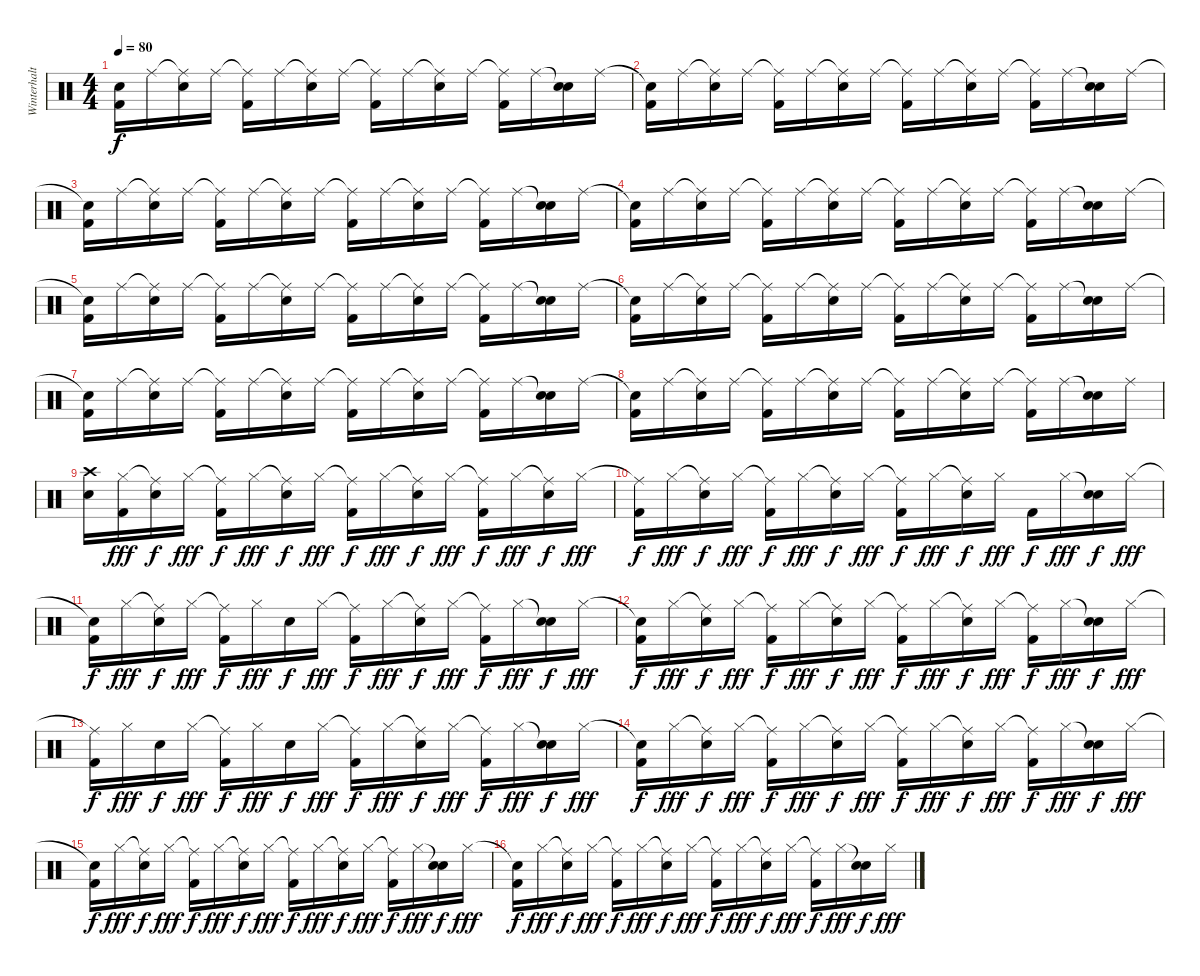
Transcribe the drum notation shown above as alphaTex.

\track ("Winterhalten" "Winterhalt") {instrument percussion}
\staff {score}
\articulation defaults
\ts (4 4)
\tempo 80
\clef neutral
\ks c
("Snare (hit)"{t} "Kick (hit) 2").16{dy f} "Ride (middle)".16 ("Ride (middle)"{t} "Snare (hit) 2").16 "Ride (middle)".16 ("Ride (middle)"{t} "Kick (hit) 2").16 "Ride (middle)".16 ("Ride (middle)"{t} "Snare (hit) 2").16 "Ride (middle)".16 ("Ride (middle)"{t} "Kick (hit) 2").16 "Ride (middle)".16 ("Ride (middle)"{t} "Snare (hit) 2").16 "Ride (middle)".16 ("Ride (middle)"{t} "Kick (hit) 2").16 "Ride (middle)".16 ("Snare (hit)"{t} "Snare (hit) 2").16 "Ride (middle)".16 |
("Snare (hit)"{t} "Kick (hit) 2").16 "Ride (middle)".16 ("Ride (middle)"{t} "Snare (hit) 2").16 "Ride (middle)".16 ("Ride (middle)"{t} "Kick (hit) 2").16 "Ride (middle)".16 ("Ride (middle)"{t} "Snare (hit) 2").16 "Ride (middle)".16 ("Ride (middle)"{t} "Kick (hit) 2").16 "Ride (middle)".16 ("Ride (middle)"{t} "Snare (hit) 2").16 "Ride (middle)".16 ("Ride (middle)"{t} "Kick (hit) 2").16 "Ride (middle)".16 ("Snare (hit)"{t} "Snare (hit) 2").16 "Ride (middle)".16 |
("Snare (hit)"{t} "Kick (hit) 2").16 "Ride (middle)".16 ("Ride (middle)"{t} "Snare (hit) 2").16 "Ride (middle)".16 ("Ride (middle)"{t} "Kick (hit) 2").16 "Ride (middle)".16 ("Ride (middle)"{t} "Snare (hit) 2").16 "Ride (middle)".16 ("Ride (middle)"{t} "Kick (hit) 2").16 "Ride (middle)".16 ("Ride (middle)"{t} "Snare (hit) 2").16 "Ride (middle)".16 ("Ride (middle)"{t} "Kick (hit) 2").16 "Ride (middle)".16 ("Snare (hit)"{t} "Snare (hit) 2").16 "Ride (middle)".16 |
("Snare (hit)"{t} "Kick (hit) 2").16 "Ride (middle)".16 ("Ride (middle)"{t} "Snare (hit) 2").16 "Ride (middle)".16 ("Ride (middle)"{t} "Kick (hit) 2").16 "Ride (middle)".16 ("Ride (middle)"{t} "Snare (hit) 2").16 "Ride (middle)".16 ("Ride (middle)"{t} "Kick (hit) 2").16 "Ride (middle)".16 ("Ride (middle)"{t} "Snare (hit) 2").16 "Ride (middle)".16 ("Ride (middle)"{t} "Kick (hit) 2").16 "Ride (middle)".16 ("Snare (hit)"{t} "Snare (hit) 2").16 "Ride (middle)".16 |
("Snare (hit)"{t} "Kick (hit) 2").16 "Ride (middle)".16 ("Ride (middle)"{t} "Snare (hit) 2").16 "Ride (middle)".16 ("Ride (middle)"{t} "Kick (hit) 2").16 "Ride (middle)".16 ("Ride (middle)"{t} "Snare (hit) 2").16 "Ride (middle)".16 ("Ride (middle)"{t} "Kick (hit) 2").16 "Ride (middle)".16 ("Ride (middle)"{t} "Snare (hit) 2").16 "Ride (middle)".16 ("Ride (middle)"{t} "Kick (hit) 2").16 "Ride (middle)".16 ("Snare (hit)"{t} "Snare (hit) 2").16 "Ride (middle)".16 |
("Snare (hit)"{t} "Kick (hit) 2").16 "Ride (middle)".16 ("Ride (middle)"{t} "Snare (hit) 2").16 "Ride (middle)".16 ("Ride (middle)"{t} "Kick (hit) 2").16 "Ride (middle)".16 ("Ride (middle)"{t} "Snare (hit) 2").16 "Ride (middle)".16 ("Ride (middle)"{t} "Kick (hit) 2").16 "Ride (middle)".16 ("Ride (middle)"{t} "Snare (hit) 2").16 "Ride (middle)".16 ("Ride (middle)"{t} "Kick (hit) 2").16 "Ride (middle)".16 ("Snare (hit)"{t} "Snare (hit) 2").16 "Ride (middle)".16 |
("Snare (hit)"{t} "Kick (hit) 2").16 "Ride (middle)".16 ("Ride (middle)"{t} "Snare (hit) 2").16 "Ride (middle)".16 ("Ride (middle)"{t} "Kick (hit) 2").16 "Ride (middle)".16 ("Ride (middle)"{t} "Snare (hit) 2").16 "Ride (middle)".16 ("Ride (middle)"{t} "Kick (hit) 2").16 "Ride (middle)".16 ("Ride (middle)"{t} "Snare (hit) 2").16 "Ride (middle)".16 ("Ride (middle)"{t} "Kick (hit) 2").16 "Ride (middle)".16 ("Snare (hit)"{t} "Snare (hit) 2").16 "Ride (middle)".16 |
("Snare (hit)"{t} "Kick (hit) 2").16 "Ride (middle)".16 ("Ride (middle)"{t} "Snare (hit) 2").16 "Ride (middle)".16 ("Ride (middle)"{t} "Kick (hit) 2").16 "Ride (middle)".16 ("Ride (middle)"{t} "Snare (hit) 2").16 "Ride (middle)".16 ("Ride (middle)"{t} "Kick (hit) 2").16 "Ride (middle)".16 ("Ride (middle)"{t} "Snare (hit) 2").16 "Ride (middle)".16 ("Ride (middle)"{t} "Kick (hit) 2").16 "Ride (middle)".16 ("Snare (hit)"{t} "Snare (hit) 2").16 "Ride (middle)".16 |
("Crash high (hit)" "Snare (hit) 2").16 ("Hi-Hat (closed)" "Kick (hit) 2").16{dy fff} ("Ride (middle)"{t} "Snare (hit) 2").16{dy f} "Hi-Hat (closed)".16{dy fff} ("Ride (middle)"{t} "Kick (hit) 2").16{dy f} "Hi-Hat (closed)".16{dy fff} ("Ride (middle)"{t} "Snare (hit) 2").16{dy f} "Hi-Hat (closed)".16{dy fff} ("Ride (middle)"{t} "Kick (hit) 2").16{dy f} "Hi-Hat (closed)".16{dy fff} ("Ride (middle)"{t} "Snare (hit) 2").16{dy f} "Hi-Hat (closed)".16{dy fff} ("Ride (middle)"{t} "Kick (hit) 2").16{dy f} "Hi-Hat (closed)".16{dy fff} ("Ride (middle)"{t} "Snare (hit) 2").16{dy f} "Hi-Hat (closed)".16{dy fff} |
("Ride (middle)"{t} "Kick (hit) 2").16{dy f} "Hi-Hat (closed)".16{dy fff} ("Ride (middle)"{t} "Snare (hit) 2").16{dy f} "Hi-Hat (closed)".16{dy fff} ("Ride (middle)"{t} "Kick (hit) 2").16{dy f} "Hi-Hat (closed)".16{dy fff} ("Ride (middle)"{t} "Snare (hit) 2").16{dy f} "Hi-Hat (closed)".16{dy fff} ("Ride (middle)"{t} "Kick (hit) 2").16{dy f} "Hi-Hat (closed)".16{dy fff} ("Ride (middle)"{t} "Snare (hit) 2").16{dy f} "Hi-Hat (closed)".16{dy fff} "Kick (hit) 2".16{dy f} "Hi-Hat (closed)".16{dy fff} ("Snare (hit)"{t} "Snare (hit) 2").16{dy f} "Hi-Hat (closed)".16{dy fff} |
("Snare (hit)"{t} "Kick (hit) 2").16{dy f} "Hi-Hat (closed)".16{dy fff} ("Ride (middle)"{t} "Snare (hit) 2").16{dy f} "Hi-Hat (closed)".16{dy fff} ("Ride (middle)"{t} "Kick (hit) 2").16{dy f} "Hi-Hat (closed)".16{dy fff} "Snare (hit) 2".16{dy f} "Hi-Hat (closed)".16{dy fff} ("Ride (middle)"{t} "Kick (hit) 2").16{dy f} "Hi-Hat (closed)".16{dy fff} ("Ride (middle)"{t} "Snare (hit) 2").16{dy f} "Hi-Hat (closed)".16{dy fff} ("Ride (middle)"{t} "Kick (hit) 2").16{dy f} "Hi-Hat (closed)".16{dy fff} ("Snare (hit)"{t} "Snare (hit) 2").16{dy f} "Hi-Hat (closed)".16{dy fff} |
("Snare (hit)"{t} "Kick (hit) 2").16{dy f} "Hi-Hat (closed)".16{dy fff} ("Ride (middle)"{t} "Snare (hit) 2").16{dy f} "Hi-Hat (closed)".16{dy fff} ("Ride (middle)"{t} "Kick (hit) 2").16{dy f} "Hi-Hat (closed)".16{dy fff} ("Ride (middle)"{t} "Snare (hit) 2").16{dy f} "Hi-Hat (closed)".16{dy fff} ("Ride (middle)"{t} "Kick (hit) 2").16{dy f} "Hi-Hat (closed)".16{dy fff} ("Ride (middle)"{t} "Snare (hit) 2").16{dy f} "Hi-Hat (closed)".16{dy fff} ("Ride (middle)"{t} "Kick (hit) 2").16{dy f} "Hi-Hat (closed)".16{dy fff} ("Snare (hit)"{t} "Snare (hit) 2").16{dy f} "Hi-Hat (closed)".16{dy fff} |
("Ride (middle)"{t} "Kick (hit) 2").16{dy f} "Hi-Hat (closed)".16{dy fff} "Snare (hit) 2".16{dy f} "Hi-Hat (closed)".16{dy fff} ("Ride (middle)"{t} "Kick (hit) 2").16{dy f} "Hi-Hat (closed)".16{dy fff} "Snare (hit) 2".16{dy f} "Hi-Hat (closed)".16{dy fff} ("Ride (middle)"{t} "Kick (hit) 2").16{dy f} "Hi-Hat (closed)".16{dy fff} ("Ride (middle)"{t} "Snare (hit) 2").16{dy f} "Hi-Hat (closed)".16{dy fff} ("Ride (middle)"{t} "Kick (hit) 2").16{dy f} "Hi-Hat (closed)".16{dy fff} ("Snare (hit)"{t} "Snare (hit) 2").16{dy f} "Hi-Hat (closed)".16{dy fff} |
("Snare (hit)"{t} "Kick (hit) 2").16{dy f} "Hi-Hat (closed)".16{dy fff} ("Ride (middle)"{t} "Snare (hit) 2").16{dy f} "Hi-Hat (closed)".16{dy fff} ("Ride (middle)"{t} "Kick (hit) 2").16{dy f} "Hi-Hat (closed)".16{dy fff} ("Ride (middle)"{t} "Snare (hit) 2").16{dy f} "Hi-Hat (closed)".16{dy fff} ("Ride (middle)"{t} "Kick (hit) 2").16{dy f} "Hi-Hat (closed)".16{dy fff} ("Ride (middle)"{t} "Snare (hit) 2").16{dy f} "Hi-Hat (closed)".16{dy fff} ("Ride (middle)"{t} "Kick (hit) 2").16{dy f} "Hi-Hat (closed)".16{dy fff} ("Snare (hit)"{t} "Snare (hit) 2").16{dy f} "Hi-Hat (closed)".16{dy fff} |
("Snare (hit)"{t} "Kick (hit) 2").16{dy f} "Hi-Hat (closed)".16{dy fff} ("Ride (middle)"{t} "Snare (hit) 2").16{dy f} "Hi-Hat (closed)".16{dy fff} ("Ride (middle)"{t} "Kick (hit) 2").16{dy f} "Hi-Hat (closed)".16{dy fff} ("Ride (middle)"{t} "Snare (hit) 2").16{dy f} "Hi-Hat (closed)".16{dy fff} ("Ride (middle)"{t} "Kick (hit) 2").16{dy f} "Hi-Hat (closed)".16{dy fff} ("Ride (middle)"{t} "Snare (hit) 2").16{dy f} "Hi-Hat (closed)".16{dy fff} ("Ride (middle)"{t} "Kick (hit) 2").16{dy f} "Hi-Hat (closed)".16{dy fff} ("Snare (hit)"{t} "Snare (hit) 2").16{dy f} "Hi-Hat (closed)".16{dy fff} |
("Snare (hit)"{t} "Kick (hit) 2").16{dy f} "Hi-Hat (closed)".16{dy fff} ("Ride (middle)"{t} "Snare (hit) 2").16{dy f} "Hi-Hat (closed)".16{dy fff} ("Ride (middle)"{t} "Kick (hit) 2").16{dy f} "Hi-Hat (closed)".16{dy fff} ("Ride (middle)"{t} "Snare (hit) 2").16{dy f} "Hi-Hat (closed)".16{dy fff} ("Ride (middle)"{t} "Kick (hit) 2").16{dy f} "Hi-Hat (closed)".16{dy fff} ("Ride (middle)"{t} "Snare (hit) 2").16{dy f} "Hi-Hat (closed)".16{dy fff} ("Ride (middle)"{t} "Kick (hit) 2").16{dy f} "Hi-Hat (closed)".16{dy fff} ("Snare (hit)"{t} "Snare (hit) 2").16{dy f} "Hi-Hat (closed)".16{dy fff}
